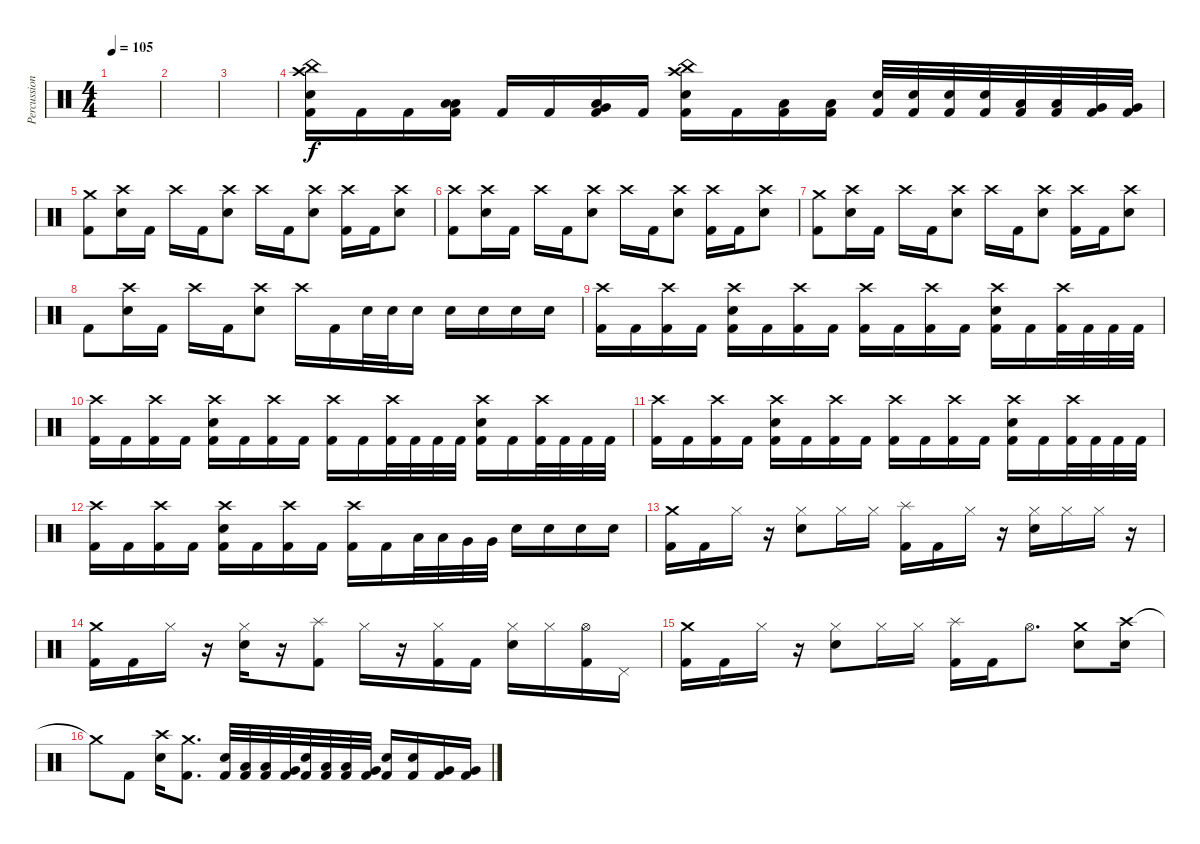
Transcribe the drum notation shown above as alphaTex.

\track ("Percussions" "Percussion") {instrument percussion}
\staff {score}
\articulation defaults
\ts (4 4)
\tempo 105
\clef neutral
\ks c
|
|
|
("Crash high (hit)" "China (hit)" "Electric Snare (hit)" "Kick (hit) 2").16 "Kick (hit) 2".16 "Kick (hit) 2".16 ("Low Tom (hit)" "Low Floor Tom (hit)" "Kick (hit) 2").16 "Kick (hit) 2".16 "Kick (hit) 2".16 ("Very Low Tom (hit)" "Low Floor Tom (hit)" "Kick (hit) 2").16 "Kick (hit) 2".16 ("Crash high (hit)" "China (hit)" "Electric Snare (hit)" "Kick (hit) 2").16 "Kick (hit) 2".16 ("Low Tom (hit)" "Kick (hit) 2").16 ("Low Tom (hit)" "Kick (hit) 2").16 ("Electric Snare (hit)" "Kick (hit) 2").32 ("Electric Snare (hit)" "Kick (hit) 2").32 ("Electric Snare (hit)" "Kick (hit) 2").32 ("Electric Snare (hit)" "Kick (hit) 2").32 ("Low Tom (hit)" "Kick (hit) 2").32 ("Low Tom (hit)" "Kick (hit) 2").32 ("Very Low Tom (hit)" "Kick (hit) 2").32 ("Very Low Tom (hit)" "Kick (hit) 2").32 |
("Crash medium (hit)" "Kick (hit) 2").8 ("Crash high (hit)" "Electric Snare (hit)").16 "Kick (hit) 2".16 "Crash high (hit)".16 "Kick (hit) 2".16 ("Crash high (hit)" "Electric Snare (hit)").8 "Crash high (hit)".16 "Kick (hit) 2".16 ("Crash high (hit)" "Electric Snare (hit)").8 ("Crash high (hit)" "Kick (hit) 2").16 "Kick (hit) 2".16 ("Crash high (hit)" "Electric Snare (hit)").8 |
("Crash high (hit)" "Kick (hit) 2").8 ("Crash high (hit)" "Electric Snare (hit)").16 "Kick (hit) 2".16 "Crash high (hit)".16 "Kick (hit) 2".16 ("Crash high (hit)" "Electric Snare (hit)").8 "Crash high (hit)".16 "Kick (hit) 2".16 ("Crash high (hit)" "Electric Snare (hit)").8 ("Crash high (hit)" "Kick (hit) 2").16 "Kick (hit) 2".16 ("Crash high (hit)" "Electric Snare (hit)").8 |
("Crash medium (hit)" "Kick (hit) 2").8 ("Crash high (hit)" "Electric Snare (hit)").16 "Kick (hit) 2".16 "Crash high (hit)".16 "Kick (hit) 2".16 ("Crash high (hit)" "Electric Snare (hit)").8 "Crash high (hit)".16 "Kick (hit) 2".16 ("Crash high (hit)" "Electric Snare (hit)").8 ("Crash high (hit)" "Kick (hit) 2").16 "Kick (hit) 2".16 ("Crash high (hit)" "Electric Snare (hit)").8 |
"Kick (hit) 2".8 ("Crash high (hit)" "Electric Snare (hit)").16 "Kick (hit) 2".16 "Crash high (hit)".16 "Kick (hit) 2".16 ("Crash high (hit)" "Electric Snare (hit)").8 "Crash high (hit)".16 "Kick (hit) 2".16 "Electric Snare (hit)".32 "Electric Snare (hit)".32 "Electric Snare (hit)".16 "Electric Snare (hit)".16 "Electric Snare (hit)".16 "Electric Snare (hit)".16 "Electric Snare (hit)".16 |
("Crash high (hit)" "Kick (hit) 2").16 "Kick (hit) 2".16 ("Crash high (hit)" "Kick (hit) 2").16 "Kick (hit) 2".16 ("Crash high (hit)" "Electric Snare (hit)" "Kick (hit) 2").16 "Kick (hit) 2".16 ("Crash high (hit)" "Kick (hit) 2").16 "Kick (hit) 2".16 ("Crash high (hit)" "Kick (hit) 2").16 "Kick (hit) 2".16 ("Crash high (hit)" "Kick (hit) 2").16 "Kick (hit) 2".16 ("Crash high (hit)" "Electric Snare (hit)" "Kick (hit) 2").16 "Kick (hit) 2".16 ("Crash high (hit)" "Kick (hit) 2").32 "Kick (hit) 2".32 "Kick (hit) 2".32 "Kick (hit) 2".32 |
("Crash high (hit)" "Kick (hit) 2").16 "Kick (hit) 2".16 ("Crash high (hit)" "Kick (hit) 2").16 "Kick (hit) 2".16 ("Crash high (hit)" "Electric Snare (hit)" "Kick (hit) 2").16 "Kick (hit) 2".16 ("Crash high (hit)" "Kick (hit) 2").16 "Kick (hit) 2".16 ("Crash high (hit)" "Kick (hit) 2").16 "Kick (hit) 2".16 ("Crash high (hit)" "Kick (hit) 2").32 "Kick (hit) 2".32 "Kick (hit) 2".32 "Kick (hit) 2".32 ("Crash high (hit)" "Electric Snare (hit)" "Kick (hit) 2").16 "Kick (hit) 2".16 ("Crash high (hit)" "Kick (hit) 2").32 "Kick (hit) 2".32 "Kick (hit) 2".32 "Kick (hit) 2".32 |
("Crash high (hit)" "Kick (hit) 2").16 "Kick (hit) 2".16 ("Crash high (hit)" "Kick (hit) 2").16 "Kick (hit) 2".16 ("Crash high (hit)" "Electric Snare (hit)" "Kick (hit) 2").16 "Kick (hit) 2".16 ("Crash high (hit)" "Kick (hit) 2").16 "Kick (hit) 2".16 ("Crash high (hit)" "Kick (hit) 2").16 "Kick (hit) 2".16 ("Crash high (hit)" "Kick (hit) 2").16 "Kick (hit) 2".16 ("Crash high (hit)" "Electric Snare (hit)" "Kick (hit) 2").16 "Kick (hit) 2".16 ("Crash high (hit)" "Kick (hit) 2").32 "Kick (hit) 2".32 "Kick (hit) 2".32 "Kick (hit) 2".32 |
("Crash high (hit)" "Kick (hit) 2").16 "Kick (hit) 2".16 ("Crash high (hit)" "Kick (hit) 2").16 "Kick (hit) 2".16 ("Crash high (hit)" "Electric Snare (hit)" "Kick (hit) 2").16 "Kick (hit) 2".16 ("Crash high (hit)" "Kick (hit) 2").16 "Kick (hit) 2".16 ("Crash high (hit)" "Kick (hit) 2").16 "Kick (hit) 2".16 "Low Tom (hit)".32 "Low Tom (hit)".32 "Very Low Tom (hit)".32 "Very Low Tom (hit)".32 "Electric Snare (hit)".16 "Electric Snare (hit)".16 "Electric Snare (hit)".16 "Electric Snare (hit)".16 |
("Crash medium (hit)" "Kick (hit) 2").16 "Kick (hit) 2".16 "Hi-Hat (closed)".16 r.16 ("Hi-Hat (closed)" "Electric Snare (hit)").8 "Hi-Hat (closed)".16 "Hi-Hat (closed)".16 ("Splash (hit)" "Kick (hit) 2").16 "Kick (hit) 2".16 "Hi-Hat (closed)".16 r.16 ("Hi-Hat (closed)" "Electric Snare (hit)").16 "Hi-Hat (closed)".16 "Hi-Hat (closed)".16 r.16 |
("Crash medium (hit)" "Kick (hit) 2").16 "Kick (hit) 2".16 "Hi-Hat (closed)".16 r.16 ("Hi-Hat (closed)" "Electric Snare (hit)").16 r.16 ("Splash (hit)" "Kick (hit) 2").8 "Hi-Hat (closed)".16 r.16 ("Hi-Hat (closed)" "Kick (hit) 2").16 "Kick (hit) 2".16 ("Hi-Hat (closed)" "Electric Snare (hit)").16 "Hi-Hat (closed)".16 ("Hi-Hat (open)" "Kick (hit) 2").16 "Pedal Hi-Hat (hit)".16 |
("Crash medium (hit)" "Kick (hit) 2").16 "Kick (hit) 2".16 "Hi-Hat (closed)".16 r.16 ("Hi-Hat (closed)" "Electric Snare (hit)").8 "Hi-Hat (closed)".16 "Hi-Hat (closed)".16 ("Splash (hit)" "Kick (hit) 2").16 "Kick (hit) 2".16 "Hi-Hat (open)".8{d} ("Crash medium (hit)" "Electric Snare (hit)").8 ("Crash high (hit)" "Electric Snare (hit)").16 |
"Crash medium (hit)"{t}.8 "Kick (hit) 2".8 ("Crash high (hit)" "Electric Snare (hit)").16 ("Crash medium (hit)" "Kick (hit) 2").8{d} ("Electric Snare (hit)" "Kick (hit) 2").32 ("Low Tom (hit)" "Kick (hit) 2").32 ("Low Tom (hit)" "Kick (hit) 2").32 ("Very Low Tom (hit)" "Kick (hit) 2").32 ("Electric Snare (hit)" "Kick (hit) 2").32 ("Low Tom (hit)" "Kick (hit) 2").32 ("Low Tom (hit)" "Kick (hit) 2").32 ("Very Low Tom (hit)" "Kick (hit) 2").32 ("Electric Snare (hit)" "Kick (hit) 2").16 ("Electric Snare (hit)" "Kick (hit) 2").16 ("Very Low Tom (hit)" "Kick (hit) 2").16 ("Very Low Tom (hit)" "Kick (hit) 2").16
